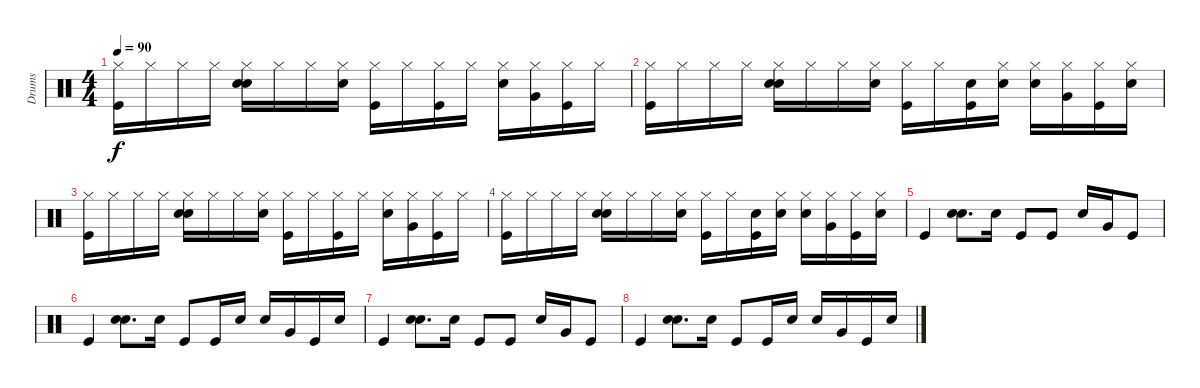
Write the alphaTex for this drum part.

\track ("Drums" "Drums") {instrument percussion}
\staff {score}
\articulation defaults
\ts (4 4)
\tempo 90
\clef neutral
\ks c
("Hi-Hat (closed)" "Kick (hit)").16{dy f} "Hi-Hat (closed)".16 "Hi-Hat (closed)".16 "Hi-Hat (closed)".16 ("Hi-Hat (closed)" "Electric Snare (hit)" "Hand Clap (hit)").16 "Hi-Hat (closed)".16 "Hi-Hat (closed)".16 ("Hi-Hat (closed)" "Electric Snare (hit)").16 ("Hi-Hat (closed)" "Kick (hit)").16 "Hi-Hat (closed)".16 ("Hi-Hat (closed)" "Kick (hit)").16 "Hi-Hat (closed)".16 ("Hi-Hat (closed)" "Electric Snare (hit)").16 ("Hi-Hat (closed)" "Very Low Tom (hit)").16 ("Hi-Hat (closed)" "Kick (hit)").16 "Hi-Hat (closed)".16 |
("Hi-Hat (closed)" "Kick (hit)").16 "Hi-Hat (closed)".16 "Hi-Hat (closed)".16 "Hi-Hat (closed)".16 ("Hi-Hat (closed)" "Electric Snare (hit)" "Hand Clap (hit)").16 "Hi-Hat (closed)".16 "Hi-Hat (closed)".16 ("Hi-Hat (closed)" "Electric Snare (hit)").16 ("Hi-Hat (closed)" "Kick (hit)").16 "Hi-Hat (closed)".16 ("Snare (hit)" "Kick (hit)").16 ("Hi-Hat (closed)" "Electric Snare (hit)").16 ("Hi-Hat (closed)" "Electric Snare (hit)").16 ("Hi-Hat (closed)" "Very Low Tom (hit)").16 ("Hi-Hat (closed)" "Kick (hit)").16 ("Hi-Hat (closed)" "Electric Snare (hit)").16 |
("Hi-Hat (closed)" "Kick (hit)").16 "Hi-Hat (closed)".16 "Hi-Hat (closed)".16 "Hi-Hat (closed)".16 ("Hi-Hat (closed)" "Electric Snare (hit)" "Hand Clap (hit)").16 "Hi-Hat (closed)".16 "Hi-Hat (closed)".16 ("Hi-Hat (closed)" "Electric Snare (hit)").16 ("Hi-Hat (closed)" "Kick (hit)").16 "Hi-Hat (closed)".16 ("Hi-Hat (closed)" "Kick (hit)").16 "Hi-Hat (closed)".16 ("Hi-Hat (closed)" "Electric Snare (hit)").16 ("Hi-Hat (closed)" "Very Low Tom (hit)").16 ("Hi-Hat (closed)" "Kick (hit)").16 "Hi-Hat (closed)".16 |
("Hi-Hat (closed)" "Kick (hit)").16 "Hi-Hat (closed)".16 "Hi-Hat (closed)".16 "Hi-Hat (closed)".16 ("Hi-Hat (closed)" "Electric Snare (hit)" "Hand Clap (hit)").16 "Hi-Hat (closed)".16 "Hi-Hat (closed)".16 ("Hi-Hat (closed)" "Electric Snare (hit)").16 ("Hi-Hat (closed)" "Kick (hit)").16 "Hi-Hat (closed)".16 ("Snare (hit)" "Kick (hit)").16 ("Hi-Hat (closed)" "Electric Snare (hit)").16 ("Hi-Hat (closed)" "Electric Snare (hit)").16 ("Hi-Hat (closed)" "Very Low Tom (hit)").16 ("Hi-Hat (closed)" "Kick (hit)").16 ("Hi-Hat (closed)" "Electric Snare (hit)").16 |
"Kick (hit)".4 ("Electric Snare (hit)" "Hand Clap (hit)").8{d} "Electric Snare (hit)".16 "Kick (hit)".8 "Kick (hit)".8 "Electric Snare (hit)".16 "Very Low Tom (hit)".16 "Kick (hit)".8 |
"Kick (hit)".4 ("Electric Snare (hit)" "Hand Clap (hit)").8{d} "Electric Snare (hit)".16 "Kick (hit)".8 "Kick (hit)".16 "Electric Snare (hit)".16 "Electric Snare (hit)".16 "Very Low Tom (hit)".16 "Kick (hit)".16 "Electric Snare (hit)".16 |
"Kick (hit)".4 ("Electric Snare (hit)" "Hand Clap (hit)").8{d} "Electric Snare (hit)".16 "Kick (hit)".8 "Kick (hit)".8 "Electric Snare (hit)".16 "Very Low Tom (hit)".16 "Kick (hit)".8 |
"Kick (hit)".4 ("Electric Snare (hit)" "Hand Clap (hit)").8{d} "Electric Snare (hit)".16 "Kick (hit)".8 "Kick (hit)".16 "Electric Snare (hit)".16 "Electric Snare (hit)".16 "Very Low Tom (hit)".16 "Kick (hit)".16 "Electric Snare (hit)".16
